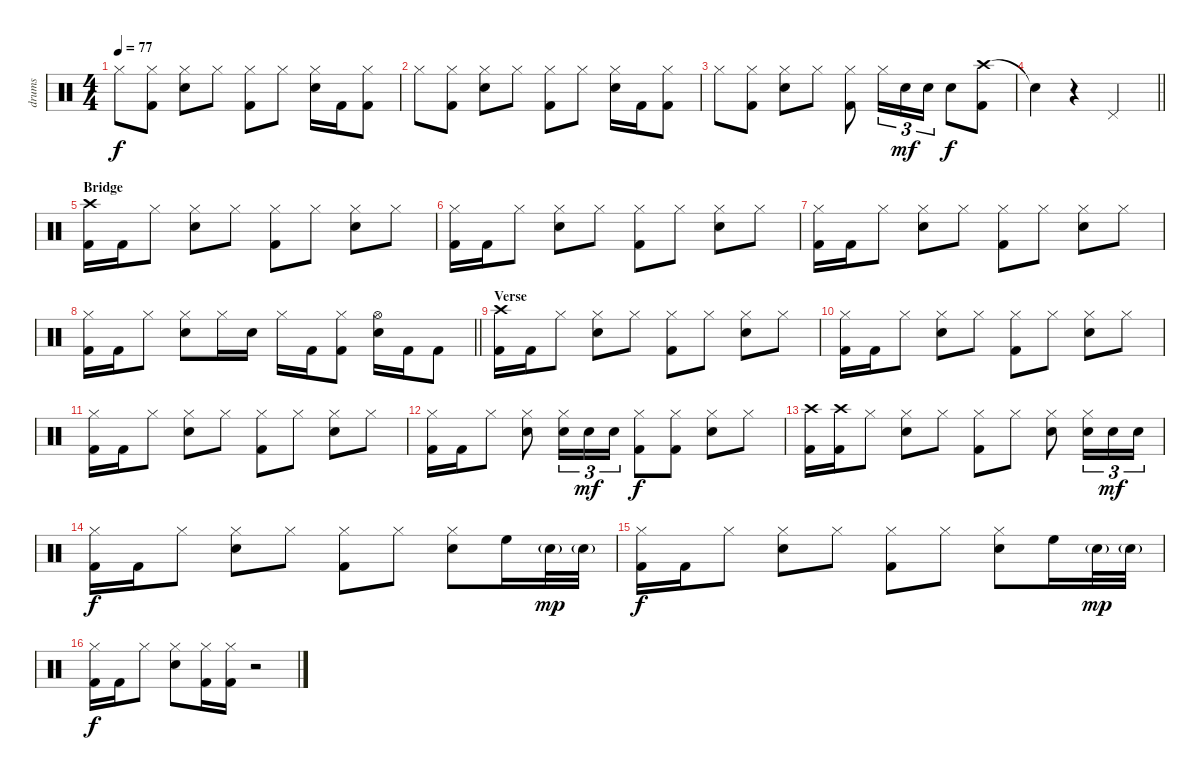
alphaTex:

\track ("drums" "drums") {instrument percussion}
\staff {score}
\articulation defaults
\ts (4 4)
\tempo 77
\clef neutral
\ks c "Hi-Hat (closed)".8{dy f}
("Hi-Hat (closed)" "Kick (hit) 2").8 ("Hi-Hat (closed)" "Electric Snare (hit)").8 "Hi-Hat (closed)".8 ("Hi-Hat (closed)" "Kick (hit) 2").8 "Hi-Hat (closed)".8 ("Hi-Hat (closed)" "Electric Snare (hit)").16 "Kick (hit) 2".16 ("Hi-Hat (closed)" "Kick (hit) 2").8 |
"Hi-Hat (closed)".8 ("Hi-Hat (closed)" "Kick (hit) 2").8 ("Hi-Hat (closed)" "Electric Snare (hit)").8 "Hi-Hat (closed)".8 ("Hi-Hat (closed)" "Kick (hit) 2").8 "Hi-Hat (closed)".8 ("Hi-Hat (closed)" "Electric Snare (hit)").16 "Kick (hit) 2".16 ("Hi-Hat (closed)" "Kick (hit) 2").8 |
"Hi-Hat (closed)".8 ("Hi-Hat (closed)" "Kick (hit) 2").8 ("Hi-Hat (closed)" "Electric Snare (hit)").8 "Hi-Hat (closed)".8 ("Hi-Hat (closed)" "Kick (hit) 2").8 "Hi-Hat (closed)".16{tu (3 2)} "Electric Snare (hit)".16{tu (3 2) dy mf} "Electric Snare (hit)".16{tu (3 2)} "Electric Snare (hit)".8{dy f} ("Crash high (hit)" "Kick (hit) 2").8 |
\barLineRight lightlight "Snare (hit)"{t}.4
r.4 "Pedal Hi-Hat (hit)".2 |
\section ("" "Bridge")
("Crash high (hit)" "Kick (hit) 2").16 "Kick (hit) 2".16 "Hi-Hat (closed)".8 ("Hi-Hat (closed)" "Electric Snare (hit)").8 "Hi-Hat (closed)".8 ("Hi-Hat (closed)" "Kick (hit) 2").8 "Hi-Hat (closed)".8 ("Hi-Hat (closed)" "Electric Snare (hit)").8 "Hi-Hat (closed)".8 |
("Hi-Hat (closed)" "Kick (hit) 2").16 "Kick (hit) 2".16 "Hi-Hat (closed)".8 ("Hi-Hat (closed)" "Electric Snare (hit)").8 "Hi-Hat (closed)".8 ("Hi-Hat (closed)" "Kick (hit) 2").8 "Hi-Hat (closed)".8 ("Hi-Hat (closed)" "Electric Snare (hit)").8 "Hi-Hat (closed)".8 |
("Hi-Hat (closed)" "Kick (hit) 2").16 "Kick (hit) 2".16 "Hi-Hat (closed)".8 ("Hi-Hat (closed)" "Electric Snare (hit)").8 "Hi-Hat (closed)".8 ("Hi-Hat (closed)" "Kick (hit) 2").8 "Hi-Hat (closed)".8 ("Hi-Hat (closed)" "Electric Snare (hit)").8 "Hi-Hat (closed)".8 |
\barLineRight lightlight
("Hi-Hat (closed)" "Kick (hit) 2").16 "Kick (hit) 2".16 "Hi-Hat (closed)".8 ("Hi-Hat (closed)" "Electric Snare (hit)").8 "Hi-Hat (closed)".16 "Electric Snare (hit)".16 "Hi-Hat (closed)".16 "Kick (hit) 2".16 ("Hi-Hat (closed)" "Kick (hit) 2").8 ("Hi-Hat (open)" "Electric Snare (hit)").16 "Kick (hit) 2".16 "Kick (hit) 2".8 |
\section ("" "Verse")
("Crash high (hit)" "Kick (hit) 2").16 "Kick (hit) 2".16 "Hi-Hat (closed)".8 ("Hi-Hat (closed)" "Electric Snare (hit)").8 "Hi-Hat (closed)".8 ("Hi-Hat (closed)" "Kick (hit) 2").8 "Hi-Hat (closed)".8 ("Hi-Hat (closed)" "Electric Snare (hit)").8 "Hi-Hat (closed)".8 |
("Hi-Hat (closed)" "Kick (hit) 2").16 "Kick (hit) 2".16 "Hi-Hat (closed)".8 ("Hi-Hat (closed)" "Electric Snare (hit)").8 "Hi-Hat (closed)".8 ("Hi-Hat (closed)" "Kick (hit) 2").8 "Hi-Hat (closed)".8 ("Hi-Hat (closed)" "Electric Snare (hit)").8 "Hi-Hat (closed)".8 |
("Hi-Hat (closed)" "Kick (hit) 2").16 "Kick (hit) 2".16 "Hi-Hat (closed)".8 ("Hi-Hat (closed)" "Electric Snare (hit)").8 "Hi-Hat (closed)".8 ("Hi-Hat (closed)" "Kick (hit) 2").8 "Hi-Hat (closed)".8 ("Hi-Hat (closed)" "Electric Snare (hit)").8 "Hi-Hat (closed)".8 |
("Hi-Hat (closed)" "Kick (hit) 2").16 "Kick (hit) 2".16 "Hi-Hat (closed)".8 ("Hi-Hat (closed)" "Electric Snare (hit)").8 ("Hi-Hat (closed)" "Electric Snare (hit)").16{tu (3 2)} "Electric Snare (hit)".16{tu (3 2) dy mf} "Electric Snare (hit)".16{tu (3 2)} ("Hi-Hat (closed)" "Kick (hit) 2").8{dy f} ("Hi-Hat (closed)" "Kick (hit) 2").8 ("Hi-Hat (closed)" "Electric Snare (hit)").8 "Hi-Hat (closed)".8 |
("Crash high (hit)" "Kick (hit) 2").16 ("Crash high (hit)" "Kick (hit) 2").16 "Hi-Hat (closed)".8 ("Hi-Hat (closed)" "Electric Snare (hit)").8 "Hi-Hat (closed)".8 ("Hi-Hat (closed)" "Kick (hit) 2").8 "Hi-Hat (closed)".8 ("Hi-Hat (closed)" "Electric Snare (hit)").8 ("Hi-Hat (closed)" "Electric Snare (hit)").16{tu (3 2)} "Electric Snare (hit)".16{tu (3 2) dy mf} "Electric Snare (hit)".16{tu (3 2)} |
("Hi-Hat (closed)" "Kick (hit) 2").16{dy f} "Kick (hit) 2".16 "Hi-Hat (closed)".8 ("Hi-Hat (closed)" "Electric Snare (hit)").8 "Hi-Hat (closed)".8 ("Hi-Hat (closed)" "Kick (hit) 2").8 "Hi-Hat (closed)".8 ("Hi-Hat (closed)" "Electric Snare (hit)").8 "High Floor Tom (hit)".16 "Electric Snare (hit)"{g}.32{dy mp} "Electric Snare (hit)"{g}.32 |
("Hi-Hat (closed)" "Kick (hit) 2").16{dy f} "Kick (hit) 2".16 "Hi-Hat (closed)".8 ("Hi-Hat (closed)" "Electric Snare (hit)").8 "Hi-Hat (closed)".8 ("Hi-Hat (closed)" "Kick (hit) 2").8 "Hi-Hat (closed)".8 ("Hi-Hat (closed)" "Electric Snare (hit)").8 "High Floor Tom (hit)".16 "Electric Snare (hit)"{g}.32{dy mp} "Electric Snare (hit)"{g}.32 |
("Hi-Hat (closed)" "Kick (hit) 2").16{dy f} "Kick (hit) 2".16 "Hi-Hat (closed)".8 ("Hi-Hat (closed)" "Electric Snare (hit)").8 ("Hi-Hat (closed)" "Kick (hit) 2").16 ("Hi-Hat (closed)" "Kick (hit) 2").16 r.2
